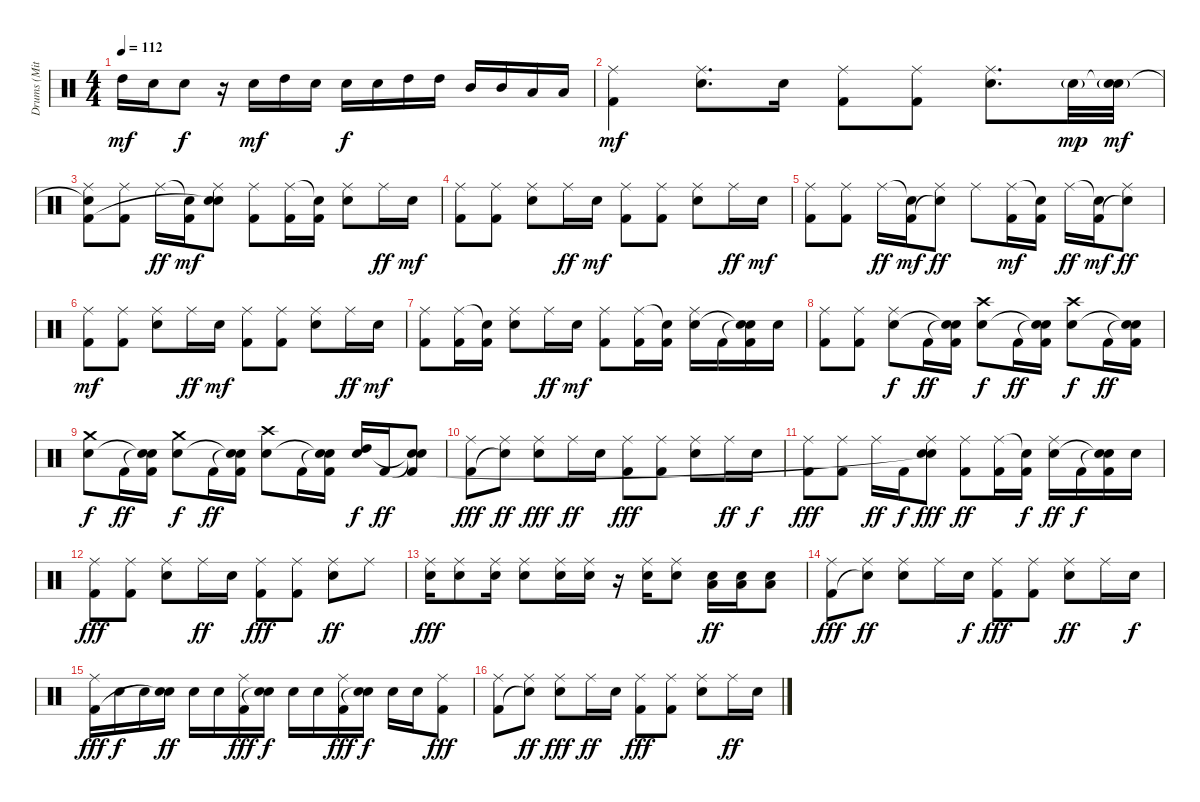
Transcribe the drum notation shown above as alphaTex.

\track ("Drums (Mitch Mitchell)" "Drums (Mit") {instrument percussion}
\staff {score}
\articulation defaults
\ts (4 4)
\tempo 112
\clef neutral
\ks c "High Tom (hit)".16{dy mf} "Electric Snare (hit)".16 "Electric Snare (hit)".8{dy f}
r.16 "Electric Snare (hit)".16{dy mf} "High Tom (hit)".16 "Electric Snare (hit)".16 "Electric Snare (hit)".16{dy f} "Electric Snare (hit)".16 "High Tom (hit)".16 "High Tom (hit)".16 "Mid Tom (hit)".16 "Mid Tom (hit)".16 "Low Tom (hit)".16 "Low Tom (hit)".16 |
("Ride (middle)" "Kick (hit) 2").4{dy mf} ("Ride (middle)" "Electric Snare (hit)").8{d} "Electric Snare (hit)".16 ("Ride (middle)" "Kick (hit) 2").8 ("Ride (middle)" "Kick (hit) 2").8 ("Ride (middle)" "Electric Snare (hit)").8{d} "Electric Snare (hit)"{g}.32{dy mp} ("Snare (hit)"{t} "Electric Snare (hit)"{g}).32{dy mf} |
("Ride (middle)" "Snare (hit)"{t} "Kick (hit) 2").8 ("Ride (middle)" "Kick (hit) 2").8 "Ride (middle)".16{dy ff} ("Snare (hit)"{t} "Kick (hit) 2").16{dy mf} ("Ride (middle)" "Electric Snare (hit)" "Snare (hit)"{t}).8 ("Ride (middle)" "Kick (hit) 2").8 ("Ride (middle)" "Kick (hit) 2").16 ("Snare (hit)"{t} "Kick (hit) 2").16 ("Ride (middle)" "Electric Snare (hit)").8 "Ride (middle)".16{dy ff} "Electric Snare (hit)".16{dy mf} |
("Ride (middle)" "Kick (hit) 2").8 ("Ride (middle)" "Kick (hit) 2").8 ("Ride (middle)" "Electric Snare (hit)").8 "Ride (middle)".16{dy ff} "Electric Snare (hit)".16{dy mf} ("Ride (middle)" "Kick (hit) 2").8 ("Ride (middle)" "Kick (hit) 2").8 ("Ride (middle)" "Electric Snare (hit)").8 "Ride (middle)".16{dy ff} "Electric Snare (hit)".16{dy mf} |
("Ride (middle)" "Kick (hit) 2").8 ("Ride (middle)" "Kick (hit) 2").8 "Ride (middle)".16{dy ff} ("Snare (hit)"{t} "Kick (hit) 2").16{dy mf} ("Ride (middle)" "Snare (hit)"{t}).8{dy ff} "Ride (middle)".8 ("Ride (middle)" "Kick (hit) 2").16{dy mf} ("Snare (hit)"{t} "Kick (hit) 2").16 "Ride (middle)".16{dy ff} ("Snare (hit)"{t} "Kick (hit) 2").16{dy mf} ("Ride (middle)" "Snare (hit)"{t}).8{dy ff} |
("Ride (middle)" "Kick (hit) 2").8{dy mf} ("Ride (middle)" "Kick (hit) 2").8 ("Ride (middle)" "Electric Snare (hit)").8 "Ride (middle)".16{dy ff} "Electric Snare (hit)".16{dy mf} ("Ride (middle)" "Kick (hit) 2").8 ("Ride (middle)" "Kick (hit) 2").8 ("Ride (middle)" "Electric Snare (hit)").8 "Ride (middle)".16{dy ff} "Electric Snare (hit)".16{dy mf} |
("Ride (middle)" "Kick (hit) 2").8 ("Ride (middle)" "Kick (hit) 2").16 ("Snare (hit)"{t} "Kick (hit) 2").16 ("Ride (middle)" "Electric Snare (hit)").8 "Ride (middle)".16{dy ff} "Electric Snare (hit)".16{dy mf} ("Ride (middle)" "Kick (hit) 2").8 ("Ride (middle)" "Kick (hit) 2").16 ("Snare (hit)"{t} "Kick (hit) 2").16 ("Ride (middle)" "Electric Snare (hit)").16 "Kick (hit) 2".16 ("Snare (hit)"{t} "Snare (hit)"{t} "Kick (hit) 2").16 "Electric Snare (hit)".16 |
("Ride (middle)" "Kick (hit) 2").8 ("Ride (middle)" "Kick (hit) 2").8 ("Ride (middle)" "Electric Snare (hit)").8{dy f} "Kick (hit) 2".16{dy ff} ("Snare (hit)"{t} "Snare (hit)"{t} "Kick (hit) 2").16 ("Crash high (hit)" "Electric Snare (hit)").8{dy f} "Kick (hit) 2".16{dy ff} ("Snare (hit)"{t} "Snare (hit)"{t} "Kick (hit) 2").16 ("Crash high (hit)" "Electric Snare (hit)").8{dy f} "Kick (hit) 2".16{dy ff} ("Snare (hit)"{t} "Snare (hit)"{t} "Kick (hit) 2").16 |
("Crash medium (hit)" "Electric Snare (hit)").8{dy f} "Kick (hit) 2".16{dy ff} ("Snare (hit)"{t} "Snare (hit)"{t} "Kick (hit) 2").16 ("Crash medium (hit)" "Electric Snare (hit)").8{dy f} "Kick (hit) 2".16{dy ff} ("Snare (hit)"{t} "Snare (hit)"{t} "Kick (hit) 2").16 ("Crash high (hit)" "Electric Snare (hit)").8 "Kick (hit) 2".16 ("Snare (hit)"{t} "Snare (hit)"{t} "Kick (hit) 2").16 ("High Tom (hit)" "Electric Snare (hit)").16{dy f} "Kick (hit) 2".16{dy ff} ("Snare (hit)"{t} "Snare (hit)"{t} "Kick (hit) 2").8 |
("Ride (middle)" "Kick (hit) 2").8{dy fff} ("Ride (middle)" "Snare (hit)"{t}).8{dy ff} ("Ride (middle)" "Electric Snare (hit)").8{dy fff} "Ride (middle)".16{dy ff} "Electric Snare (hit)".16 ("Ride (middle)" "Kick (hit) 2").8{dy fff} ("Ride (middle)" "Kick (hit) 2").8 ("Ride (middle)" "Electric Snare (hit)").8 "Ride (middle)".16{dy ff} "Electric Snare (hit)".16{dy f} |
("Ride (middle)" "Kick (hit) 2").8{dy fff} ("Ride (middle)" "Kick (hit) 2").8 "Ride (middle)".16{dy ff} "Kick (hit) 2".16{dy f} ("Ride (middle)" "Electric Snare (hit)" "Snare (hit)"{t}).8{dy fff} ("Ride (middle)" "Kick (hit) 2").8{dy ff} ("Ride (middle)" "Kick (hit) 2").16 ("Snare (hit)"{t} "Kick (hit) 2").16{dy f} ("Ride (middle)" "Electric Snare (hit)").16{dy ff} "Kick (hit) 2".16{dy f} ("Snare (hit)"{t} "Snare (hit)"{t} "Kick (hit) 2").16 "Electric Snare (hit)".16 |
("Ride (middle)" "Kick (hit) 2").8{dy fff} ("Ride (middle)" "Kick (hit) 2").8 ("Ride (middle)" "Electric Snare (hit)").8 "Ride (middle)".16{dy ff} "Electric Snare (hit)".16 ("Ride (middle)" "Kick (hit) 2").8{dy fff} ("Ride (middle)" "Kick (hit) 2").8 ("Ride (middle)" "Electric Snare (hit)").8{dy ff} "Ride (middle)".8 |
("Ride (middle)" "Electric Snare (hit)").16{dy fff} ("Ride (middle)" "Electric Snare (hit)").8 ("Ride (middle)" "Electric Snare (hit)").16 ("Ride (middle)" "Electric Snare (hit)").8 ("Ride (middle)" "Electric Snare (hit)").16 ("Ride (middle)" "Electric Snare (hit)").16 r.16 ("Ride (middle)" "Electric Snare (hit)").16 ("Ride (middle)" "Electric Snare (hit)").8 ("Electric Snare (hit)" "Low Tom (hit)").16{dy ff} ("Electric Snare (hit)" "Low Tom (hit)").16 ("Electric Snare (hit)" "Low Tom (hit)").8 |
("Ride (middle)" "Kick (hit) 2").8{dy fff} ("Ride (middle)" "Snare (hit)"{t}).8{dy ff} ("Ride (middle)" "Electric Snare (hit)").8 "Ride (middle)".16 "Electric Snare (hit)".16{dy f} ("Ride (middle)" "Kick (hit) 2").8{dy fff} ("Ride (middle)" "Kick (hit) 2").8 ("Ride (middle)" "Electric Snare (hit)").8{dy ff} "Ride (middle)".16 "Electric Snare (hit)".16{dy f} |
("Ride (middle)" "Kick (hit) 2").16{dy fff} "Electric Snare (hit)".16{dy f} "Electric Snare (hit)".16 ("Electric Snare (hit)" "Snare (hit)"{t}).16{dy ff} "Electric Snare (hit)".16 "Electric Snare (hit)".16 ("Ride (middle)" "Kick (hit) 2").16{dy fff} ("Electric Snare (hit)" "Snare (hit)"{t}).16{dy f} "Electric Snare (hit)".16 "Electric Snare (hit)".16 ("Ride (middle)" "Kick (hit) 2").16{dy fff} ("Electric Snare (hit)" "Snare (hit)"{t}).16{dy f} "Electric Snare (hit)".16 "Electric Snare (hit)".16 ("Ride (middle)" "Kick (hit) 2").8{dy fff} |
("Ride (middle)" "Kick (hit) 2").8 ("Ride (middle)" "Snare (hit)"{t}).8{dy ff} ("Ride (middle)" "Electric Snare (hit)").8{dy fff} "Ride (middle)".16{dy ff} "Electric Snare (hit)".16 ("Ride (middle)" "Kick (hit) 2").8{dy fff} ("Ride (middle)" "Kick (hit) 2").8 ("Ride (middle)" "Electric Snare (hit)").8 "Ride (middle)".16{dy ff} "Electric Snare (hit)".16
